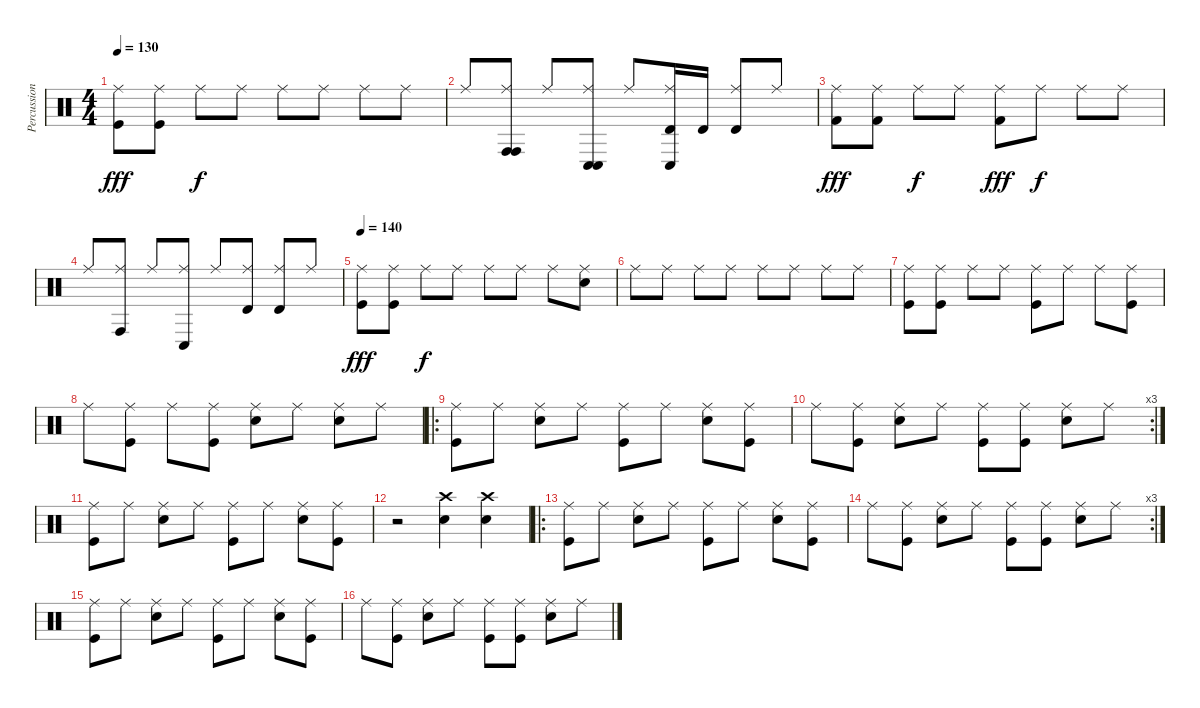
\track ("Percussions" "Percussion") {instrument percussion}
\staff {score}
\articulation defaults
\ts (4 4)
\tempo 130
\tempo 140
\tempo 130
\clef neutral
\ks c
("Ride (middle)" "Kick (hit)").8{dy fff} ("Ride (middle)" "Kick (hit)").8 "Ride (middle)".8{dy f} "Ride (middle)".8 "Ride (middle)".8 "Ride (middle)".8 "Ride (middle)".8 "Ride (middle)".8 |
"Ride (middle)".8 ("Ride (middle)" "Conga high (hit)" "Conga high (hit)").8 "Ride (middle)".8 ("Ride (middle)" "Conga low (hit)" "Conga low (hit)").8 "Ride (middle)".8 ("Ride (middle)" "Conga low (hit)" "Timbale high (hit)").16 "Timbale high (hit)".16 ("Ride (middle)" "Timbale high (hit)").8 "Ride (middle)".8 |
("Ride (middle)" "Kick (hit) 2").8{dy fff} ("Ride (middle)" "Kick (hit) 2").8 "Ride (middle)".8{dy f} "Ride (middle)".8 ("Ride (middle)" "Kick (hit) 2").8{dy fff} "Ride (middle)".8{dy f} "Ride (middle)".8 "Ride (middle)".8 |
"Ride (middle)".8 ("Ride (middle)" "Conga high (hit)").8 "Ride (middle)".8 ("Ride (middle)" "Conga low (hit)").8 "Ride (middle)".8 ("Ride (middle)" "Timbale high (hit)").8 ("Ride (middle)" "Timbale high (hit)").8 "Ride (middle)".8 |
\tempo 140
("Ride (middle)" "Kick (hit)").8{dy fff} ("Ride (middle)" "Kick (hit)").8 "Ride (middle)".8{dy f} "Ride (middle)".8 "Ride (middle)".8 "Ride (middle)".8 "Ride (middle)".8 ("Ride (middle)" "Snare (hit) 2").8 |
"Ride (middle)".8 "Ride (middle)".8 "Ride (middle)".8 "Ride (middle)".8 "Ride (middle)".8 "Ride (middle)".8 "Ride (middle)".8 "Ride (middle)".8 |
("Ride (middle)" "Kick (hit)").8 ("Ride (middle)" "Kick (hit)").8 "Ride (middle)".8 "Ride (middle)".8 ("Ride (middle)" "Kick (hit)").8 "Ride (middle)".8 "Ride (middle)".8 ("Ride (middle)" "Kick (hit)").8 |
"Ride (middle)".8 ("Ride (middle)" "Kick (hit)").8 "Ride (middle)".8 ("Ride (middle)" "Kick (hit)").8 ("Ride (middle)" "Snare (hit) 2").8 "Ride (middle)".8 ("Ride (middle)" "Snare (hit) 2").8 "Ride (middle)".8 |
\ro
("Ride (middle)" "Kick (hit)").8 "Ride (middle)".8 ("Ride (middle)" "Snare (hit) 2").8 "Ride (middle)".8 ("Ride (middle)" "Kick (hit)").8 "Ride (middle)".8 ("Ride (middle)" "Snare (hit) 2").8 ("Ride (middle)" "Kick (hit)").8 |
\rc 3 "Ride (middle)".8
("Ride (middle)" "Kick (hit)").8 ("Ride (middle)" "Snare (hit) 2").8 "Ride (middle)".8 ("Ride (middle)" "Kick (hit)").8 ("Ride (middle)" "Kick (hit)").8 ("Ride (middle)" "Snare (hit) 2").8 "Ride (middle)".8 |
("Ride (middle)" "Kick (hit)").8 "Ride (middle)".8 ("Ride (middle)" "Snare (hit) 2").8 "Ride (middle)".8 ("Ride (middle)" "Kick (hit)").8 "Ride (middle)".8 ("Ride (middle)" "Snare (hit) 2").8 ("Ride (middle)" "Kick (hit)").8 |
r.2 ("Crash high (hit)" "Snare (hit) 2").4 ("Crash high (hit)" "Snare (hit) 2").4 |
\ro
("Ride (middle)" "Kick (hit)").8 "Ride (middle)".8 ("Ride (middle)" "Snare (hit) 2").8 "Ride (middle)".8 ("Ride (middle)" "Kick (hit)").8 "Ride (middle)".8 ("Ride (middle)" "Snare (hit) 2").8 ("Ride (middle)" "Kick (hit)").8 |
\rc 3 "Ride (middle)".8
("Ride (middle)" "Kick (hit)").8 ("Ride (middle)" "Snare (hit) 2").8 "Ride (middle)".8 ("Ride (middle)" "Kick (hit)").8 ("Ride (middle)" "Kick (hit)").8 ("Ride (middle)" "Snare (hit) 2").8 "Ride (middle)".8 |
("Ride (middle)" "Kick (hit)").8 "Ride (middle)".8 ("Ride (middle)" "Snare (hit) 2").8 "Ride (middle)".8 ("Ride (middle)" "Kick (hit)").8 "Ride (middle)".8 ("Ride (middle)" "Snare (hit) 2").8 ("Ride (middle)" "Kick (hit)").8 |
"Ride (middle)".8 ("Ride (middle)" "Kick (hit)").8 ("Ride (middle)" "Snare (hit) 2").8 "Ride (middle)".8 ("Ride (middle)" "Kick (hit)").8 ("Ride (middle)" "Kick (hit)").8 ("Ride (middle)" "Snare (hit) 2").8 "Ride (middle)".8
